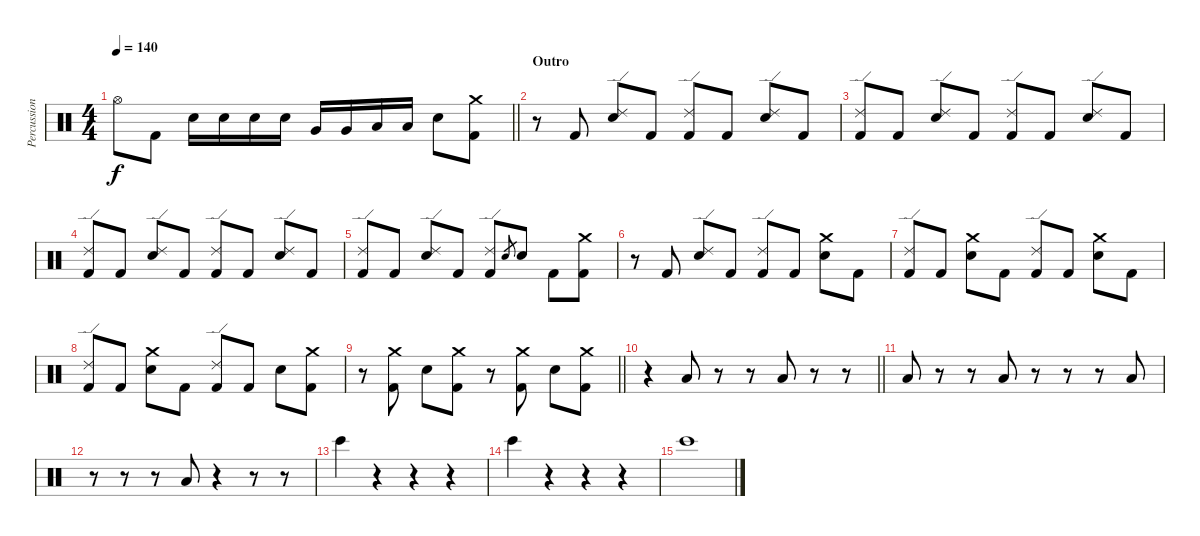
\track ("Percussion" "Percussion") {instrument percussion}
\staff {score}
\articulation defaults
\ts (4 4)
\tempo 140
\clef neutral
\barLineRight lightlight
\ks c "Hi-Hat (open)".8{dy f} "Kick (hit) 2".8 "Electric Snare (hit)".16 "Electric Snare (hit)".16 "Electric Snare (hit)".16 "Electric Snare (hit)".16 "Very Low Tom (hit)".16 "Very Low Tom (hit)".16 "Low Tom (hit)".16 "Low Tom (hit)".16 "Electric Snare (hit)".8
("Crash medium (hit)" "Kick (hit) 2").8 |
\section ("" "Outro")
r.8 "Kick (hit) 2".8 ("Ride (edge) 2" "Electric Snare (hit)").8 "Kick (hit) 2".8 ("Ride (edge) 2" "Kick (hit) 2").8 "Kick (hit) 2".8 ("Ride (edge) 2" "Electric Snare (hit)").8 "Kick (hit) 2".8 |
("Ride (edge) 2" "Kick (hit) 2").8 "Kick (hit) 2".8 ("Ride (edge) 2" "Electric Snare (hit)").8 "Kick (hit) 2".8 ("Ride (edge) 2" "Kick (hit) 2").8 "Kick (hit) 2".8 ("Ride (edge) 2" "Electric Snare (hit)").8 "Kick (hit) 2".8 |
("Ride (edge) 2" "Kick (hit) 2").8 "Kick (hit) 2".8 ("Ride (edge) 2" "Electric Snare (hit)").8 "Kick (hit) 2".8 ("Ride (edge) 2" "Kick (hit) 2").8 "Kick (hit) 2".8 ("Ride (edge) 2" "Electric Snare (hit)").8 "Kick (hit) 2".8 |
("Ride (edge) 2" "Kick (hit) 2").8 "Kick (hit) 2".8 ("Ride (edge) 2" "Electric Snare (hit)").8 "Kick (hit) 2".8 ("Ride (edge) 2" "Kick (hit) 2").8 "Electric Snare (hit)".8{gr} "Electric Snare (hit)".8 "Kick (hit) 2".8 ("Kick (hit) 2" "Crash medium (hit)").8 |
r.8 "Kick (hit) 2".8 ("Ride (edge) 2" "Electric Snare (hit)").8 "Kick (hit) 2".8 ("Ride (edge) 2" "Kick (hit) 2").8 "Kick (hit) 2".8 ("Crash medium (hit)" "Electric Snare (hit)").8 "Kick (hit) 2".8 |
("Ride (edge) 2" "Kick (hit) 2").8 "Kick (hit) 2".8 ("Crash medium (hit)" "Electric Snare (hit)").8 "Kick (hit) 2".8 ("Ride (edge) 2" "Kick (hit) 2").8 "Kick (hit) 2".8 ("Crash medium (hit)" "Electric Snare (hit)").8 "Kick (hit) 2".8 |
("Ride (edge) 2" "Kick (hit) 2").8 "Kick (hit) 2".8 ("Crash medium (hit)" "Electric Snare (hit)").8 "Kick (hit) 2".8 ("Ride (edge) 2" "Kick (hit) 2").8 "Kick (hit) 2".8 "Electric Snare (hit)".8 ("Crash medium (hit)" "Kick (hit) 2").8 |
\barLineRight lightlight
r.8 ("Crash medium (hit)" "Kick (hit) 2").8 "Electric Snare (hit)".8 ("Crash medium (hit)" "Kick (hit) 2").8 r.8 ("Kick (hit) 2" "Crash medium (hit)").8 "Electric Snare (hit)".8 ("Kick (hit) 2" "Crash medium (hit)").8 |
\barLineRight lightlight
r.4 "Low Tom (hit)".8 r.8 r.8 "Low Tom (hit)".8 r.8 r.8 |
"Low Tom (hit)".8 r.8 r.8 "Low Tom (hit)".8 r.8 r.8 r.8 "Low Tom (hit)".8 |
r.8 r.8 r.8 "Low Tom (hit)".8 r.4 r.8 r.8 |
"Bongo High (hit)".4 r.4 r.4 r.4 |
"Bongo High (hit)".4 r.4 r.4 r.4 |
"Bongo High (hit)".1
